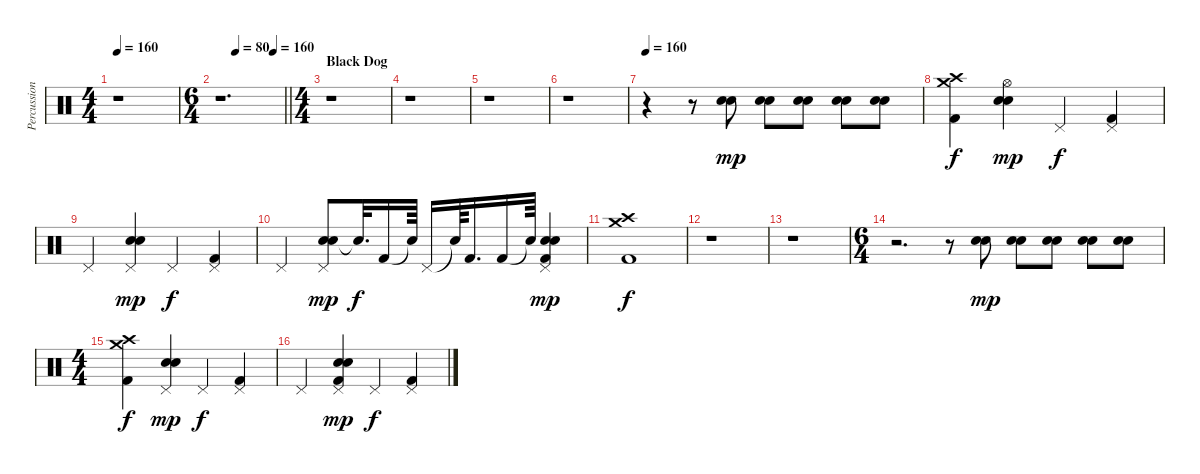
\track ("Percussion" "Percussion") {instrument percussion}
\staff {score}
\articulation defaults
\ts (4 4)
\tempo 160
\tempo 109
\tempo 160
\clef neutral
\ks c
r.1{dy mp} |
\ts (6 4)
\tempo (80 0.25)
\tempo (160 0.8333333333333334)
\barLineRight lightlight
r.1{d} |
\ts (4 4)
\section ("" "Black Dog")
r.1 |
r.1 |
r.1 |
r.1 |
\tempo 160
r.4 r.8 ("Snare (hit) 2" "Electric Snare (hit)").8 ("Snare (hit) 2" "Electric Snare (hit)").8 ("Snare (hit) 2" "Electric Snare (hit)").8 ("Snare (hit) 2" "Electric Snare (hit)").8 ("Snare (hit) 2" "Electric Snare (hit)").8 |
("Crash medium (hit)" "Kick (hit) 2" "Crash high (hit)").4{dy f} ("Snare (hit) 2" "Electric Snare (hit)" "Hi-Hat (open)").4{dy mp} "Pedal Hi-Hat (hit)".4{dy f} ("Pedal Hi-Hat (hit)" "Kick (hit) 2").4 |
"Pedal Hi-Hat (hit)".4 ("Snare (hit) 2" "Pedal Hi-Hat (hit)" "Electric Snare (hit)").4{dy mp} "Pedal Hi-Hat (hit)".4{dy f} ("Kick (hit) 2" "Pedal Hi-Hat (hit)").4 |
"Pedal Hi-Hat (hit)".4 ("Snare (hit) 2" "Electric Snare (hit)" "Pedal Hi-Hat (hit)").8{dy mp} "Snare (hit)"{t}.32{d dy f} "Kick (hit) 2".16 "Snare (hit)"{t}.64 "Pedal Hi-Hat (hit)".16 "Snare (hit)"{t}.64 "Kick (hit) 2".16{d} "Kick (hit) 2".16 "Snare (hit)"{t}.64 ("Snare (hit) 2" "Electric Snare (hit)" "Pedal Hi-Hat (hit)" "Kick (hit) 2").4{dy mp} |
("Kick (hit) 2" "Crash high (hit)" "Crash medium (hit)").1{dy f} |
r.1 |
r.1 |
\ts (6 4)
r.2{d} r.8 ("Snare (hit) 2" "Electric Snare (hit)").8{dy mp} ("Snare (hit) 2" "Electric Snare (hit)").8 ("Snare (hit) 2" "Electric Snare (hit)").8 ("Snare (hit) 2" "Electric Snare (hit)").8 ("Snare (hit) 2" "Electric Snare (hit)").8 |
\ts (4 4)
("Crash medium (hit)" "Kick (hit) 2" "Crash high (hit)").4{dy f} ("Snare (hit) 2" "Electric Snare (hit)" "Pedal Hi-Hat (hit)").4{dy mp} "Pedal Hi-Hat (hit)".4{dy f} ("Pedal Hi-Hat (hit)" "Kick (hit) 2").4 |
"Pedal Hi-Hat (hit)".4 ("Snare (hit) 2" "Pedal Hi-Hat (hit)" "Kick (hit) 2" "Electric Snare (hit)").4{dy mp} "Pedal Hi-Hat (hit)".4{dy f} ("Kick (hit) 2" "Pedal Hi-Hat (hit)").4
